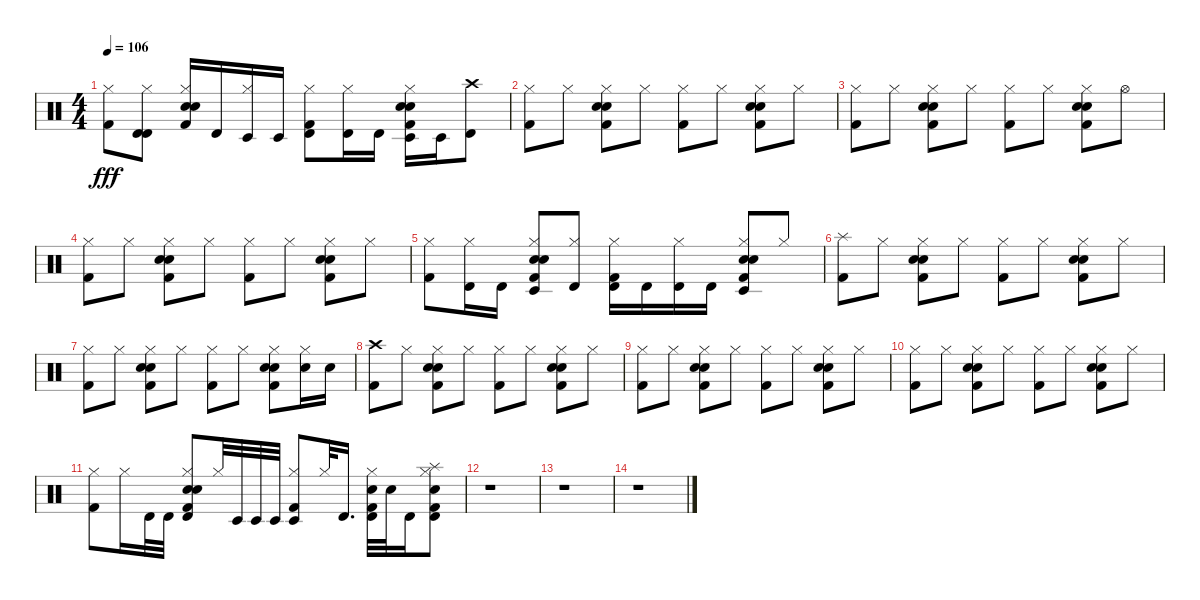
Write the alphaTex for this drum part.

\track "" {instrument percussion}
\staff {score}
\articulation defaults
\ts (4 4)
\tempo 106
\clef neutral
\ks c
("Hi-Hat (closed)" "Kick (hit) 2").8{dy fff} ("Timbale high (hit)" "Hi-Hat (closed)" "Timbale high (hit)").8 ("Hi-Hat (closed)" "Kick (hit) 2" "Snare (hit) 2" "Hand Clap (hit)").16 "Timbale high (hit)".16 ("Hi-Hat (closed)" "Timbale low (hit)").16 "Timbale low (hit)".16 ("Kick (hit) 2" "Hi-Hat (closed)" "Timbale high (hit)").8 ("Hi-Hat (closed)" "Timbale high (hit)").16 "Timbale high (hit)".16 ("Hi-Hat (closed)" "Kick (hit) 2" "Snare (hit) 2" "Timbale low (hit)" "Hand Clap (hit)").16 "Timbale low (hit)".16 ("Crash high (hit)" "Timbale high (hit)").8 |
("Kick (hit) 2" "Hi-Hat (closed)").8 "Hi-Hat (closed)".8 ("Kick (hit) 2" "Snare (hit) 2" "Hand Clap (hit)" "Hi-Hat (closed)").8 "Hi-Hat (closed)".8 ("Kick (hit) 2" "Hi-Hat (closed)").8 "Hi-Hat (closed)".8 ("Kick (hit) 2" "Snare (hit) 2" "Hand Clap (hit)" "Hi-Hat (closed)").8 "Hi-Hat (closed)".8 |
("Hi-Hat (closed)" "Kick (hit) 2").8 "Hi-Hat (closed)".8 ("Hi-Hat (closed)" "Kick (hit) 2" "Snare (hit) 2" "Hand Clap (hit)").8 "Hi-Hat (closed)".8 ("Kick (hit) 2" "Hi-Hat (closed)").8 "Hi-Hat (closed)".8 ("Hand Clap (hit)" "Hi-Hat (closed)" "Kick (hit) 2" "Snare (hit) 2").8 "Hi-Hat (open)".8 |
("Kick (hit) 2" "Hi-Hat (closed)").8 "Hi-Hat (closed)".8 ("Kick (hit) 2" "Snare (hit) 2" "Hi-Hat (closed)" "Hand Clap (hit)").8 "Hi-Hat (closed)".8 ("Kick (hit) 2" "Hi-Hat (closed)").8 "Hi-Hat (closed)".8 ("Kick (hit) 2" "Snare (hit) 2" "Hand Clap (hit)" "Hi-Hat (closed)").8 "Hi-Hat (closed)".8 |
("Hi-Hat (closed)" "Kick (hit) 2").8 ("Hi-Hat (closed)" "Timbale high (hit)").16 "Timbale high (hit)".16 ("Hi-Hat (closed)" "Kick (hit) 2" "Snare (hit) 2" "Hand Clap (hit)" "Timbale low (hit)").8 ("Hi-Hat (closed)" "Timbale high (hit)").8 ("Kick (hit) 2" "Hi-Hat (closed)" "Timbale high (hit)").16 "Timbale high (hit)".16 ("Hi-Hat (closed)" "Timbale high (hit)").16 "Timbale high (hit)".16 ("Hi-Hat (closed)" "Kick (hit) 2" "Snare (hit) 2" "Timbale low (hit)" "Hand Clap (hit)").8 "Hi-Hat (closed)".8 |
("Kick (hit) 2" "Splash (hit)").8 "Hi-Hat (closed)".8 ("Kick (hit) 2" "Snare (hit) 2" "Hi-Hat (closed)" "Hand Clap (hit)").8 "Hi-Hat (closed)".8 ("Kick (hit) 2" "Hi-Hat (closed)").8 "Hi-Hat (closed)".8 ("Kick (hit) 2" "Snare (hit) 2" "Hi-Hat (closed)" "Hand Clap (hit)").8 "Hi-Hat (closed)".8 |
("Hi-Hat (closed)" "Kick (hit) 2").8 "Hi-Hat (closed)".8 ("Hi-Hat (closed)" "Kick (hit) 2" "Snare (hit) 2" "Hand Clap (hit)").8 "Hi-Hat (closed)".8 ("Kick (hit) 2" "Hi-Hat (closed)").8 "Hi-Hat (closed)".8 ("Hi-Hat (closed)" "Kick (hit) 2" "Snare (hit) 2" "Hand Clap (hit)").8 ("Snare (hit) 2" "Hi-Hat (closed)").16 "Snare (hit) 2".16 |
("Kick (hit) 2" "Crash high (hit)").8 "Hi-Hat (closed)".8 ("Kick (hit) 2" "Snare (hit) 2" "Hand Clap (hit)" "Hi-Hat (closed)").8 "Hi-Hat (closed)".8 ("Kick (hit) 2" "Hi-Hat (closed)").8 "Hi-Hat (closed)".8 ("Kick (hit) 2" "Snare (hit) 2" "Hi-Hat (closed)" "Hand Clap (hit)").8 "Hi-Hat (closed)".8 |
("Hi-Hat (closed)" "Kick (hit) 2").8 "Hi-Hat (closed)".8 ("Hand Clap (hit)" "Hi-Hat (closed)" "Kick (hit) 2" "Snare (hit) 2").8 "Hi-Hat (closed)".8 ("Kick (hit) 2" "Hi-Hat (closed)").8 "Hi-Hat (closed)".8 ("Hi-Hat (closed)" "Kick (hit) 2" "Snare (hit) 2" "Hand Clap (hit)").8 "Hi-Hat (closed)".8 |
("Kick (hit) 2" "Hi-Hat (closed)").8 "Hi-Hat (closed)".8 ("Hand Clap (hit)" "Kick (hit) 2" "Snare (hit) 2" "Hi-Hat (closed)").8 "Hi-Hat (closed)".8 ("Kick (hit) 2" "Hi-Hat (closed)").8 "Hi-Hat (closed)".8 ("Kick (hit) 2" "Snare (hit) 2" "Hi-Hat (closed)" "Hand Clap (hit)").8 "Hi-Hat (closed)".8 |
("Hi-Hat (closed)" "Kick (hit) 2").8 "Hi-Hat (closed)".16 "Timbale high (hit)".32 "Timbale high (hit)".32 ("Hand Clap (hit)" "Hi-Hat (closed)" "Kick (hit) 2" "Snare (hit) 2" "Timbale high (hit)").8 "Hi-Hat (closed)".32 "Timbale low (hit)".32 "Timbale low (hit)".32 "Timbale low (hit)".32 ("Kick (hit) 2" "Hi-Hat (closed)" "Timbale low (hit)").8 "Hi-Hat (closed)".32 "Timbale high (hit)".16{d} ("Hi-Hat (closed)" "Kick (hit) 2" "Snare (hit) 2" "Timbale high (hit)").32 "Hand Clap (hit)".32 "Timbale high (hit)".16 ("Kick (hit) 2" "Snare (hit) 2" "Hi-Hat (closed)" "Splash (hit)" "Timbale high (hit)").8 |
r.1 |
r.1 |
r.1
